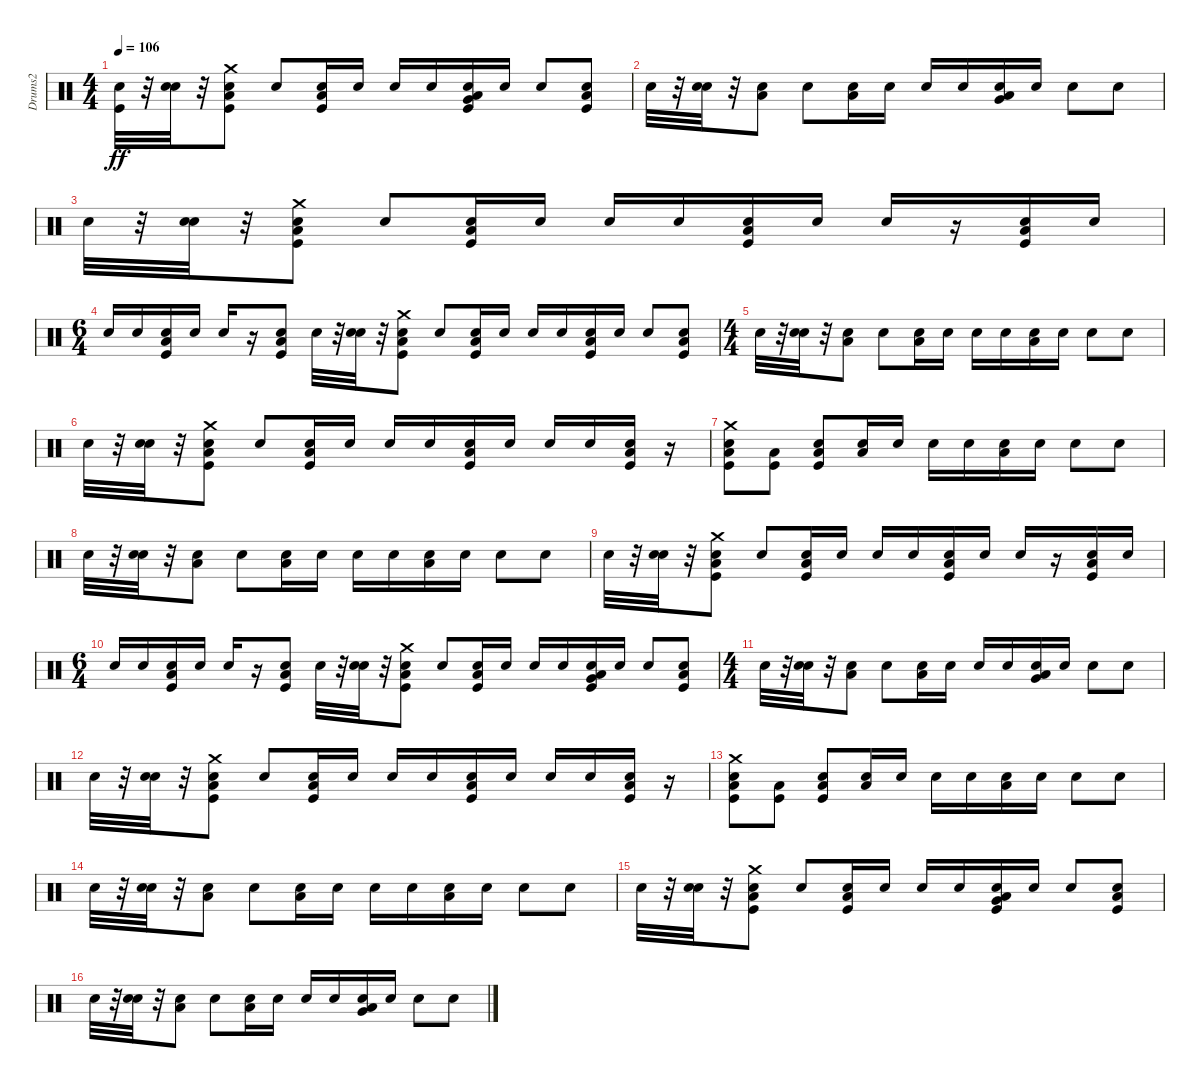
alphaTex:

\track ("Drums2" "Drums2") {instrument percussion}
\staff {score}
\articulation defaults
\ts (4 4)
\tempo 106
\clef neutral
\ks c
("Kick (hit)" "Snare (hit) 2").32{dy ff} r.32 ("Snare (hit) 2" "Snare (hit) 2").32 r.32 ("Kick (hit)" "Snare (hit) 2" "Low Floor Tom (hit)" "Crash medium (hit)").8 "Snare (hit) 2".8 ("Kick (hit)" "Snare (hit) 2" "Low Floor Tom (hit)").16 "Snare (hit) 2".16 "Snare (hit) 2".16 "Snare (hit) 2".16 ("Kick (hit)" "Snare (hit) 2" "Low Floor Tom (hit)" "Very Low Tom (hit)").16 "Snare (hit) 2".16 "Snare (hit) 2".8 ("Kick (hit)" "Snare (hit) 2" "Low Floor Tom (hit)").8 |
"Snare (hit) 2".32 r.32 ("Snare (hit) 2" "Snare (hit) 2").32 r.32 ("Snare (hit) 2" "Low Floor Tom (hit)").8 "Snare (hit) 2".8 ("Snare (hit) 2" "Low Floor Tom (hit)").16 "Snare (hit) 2".16 "Snare (hit) 2".16 "Snare (hit) 2".16 ("Snare (hit) 2" "Low Floor Tom (hit)" "Very Low Tom (hit)").16 "Snare (hit) 2".16 "Snare (hit) 2".8 "Snare (hit) 2".8 |
"Snare (hit) 2".32 r.32 ("Snare (hit) 2" "Snare (hit) 2").32 r.32 ("Kick (hit)" "Snare (hit) 2" "Low Floor Tom (hit)" "Crash medium (hit)").8 "Snare (hit) 2".8 ("Kick (hit)" "Snare (hit) 2" "Low Floor Tom (hit)").16 "Snare (hit) 2".16 "Snare (hit) 2".16 "Snare (hit) 2".16 ("Kick (hit)" "Snare (hit) 2" "Low Floor Tom (hit)").16 "Snare (hit) 2".16 "Snare (hit) 2".16 r.16 ("Kick (hit)" "Snare (hit) 2" "Low Floor Tom (hit)").16 "Snare (hit) 2".16 |
\ts (6 4)
"Snare (hit) 2".16 "Snare (hit) 2".16 ("Kick (hit)" "Snare (hit) 2" "Low Floor Tom (hit)").16 "Snare (hit) 2".16 "Snare (hit) 2".16 r.16 ("Kick (hit)" "Snare (hit) 2" "Low Floor Tom (hit)").8 "Snare (hit) 2".32 r.32 ("Snare (hit) 2" "Snare (hit) 2").32 r.32 ("Kick (hit)" "Snare (hit) 2" "Low Floor Tom (hit)" "Crash medium (hit)").8 "Snare (hit) 2".8 ("Kick (hit)" "Snare (hit) 2" "Low Floor Tom (hit)").16 "Snare (hit) 2".16 "Snare (hit) 2".16 "Snare (hit) 2".16 ("Kick (hit)" "Snare (hit) 2" "Low Floor Tom (hit)").16 "Snare (hit) 2".16 "Snare (hit) 2".8 ("Kick (hit)" "Snare (hit) 2" "Low Floor Tom (hit)").8 |
\ts (4 4)
"Snare (hit) 2".32 r.32 ("Snare (hit) 2" "Snare (hit) 2").32 r.32 ("Snare (hit) 2" "Low Floor Tom (hit)").8 "Snare (hit) 2".8 ("Snare (hit) 2" "Low Floor Tom (hit)").16 "Snare (hit) 2".16 "Snare (hit) 2".16 "Snare (hit) 2".16 ("Snare (hit) 2" "Low Floor Tom (hit)").16 "Snare (hit) 2".16 "Snare (hit) 2".8 "Snare (hit) 2".8 |
"Snare (hit) 2".32 r.32 ("Snare (hit) 2" "Snare (hit) 2").32 r.32 ("Kick (hit)" "Snare (hit) 2" "Low Floor Tom (hit)" "Crash medium (hit)").8 "Snare (hit) 2".8 ("Kick (hit)" "Snare (hit) 2" "Low Floor Tom (hit)").16 "Snare (hit) 2".16 "Snare (hit) 2".16 "Snare (hit) 2".16 ("Kick (hit)" "Snare (hit) 2" "Low Floor Tom (hit)").16 "Snare (hit) 2".16 "Snare (hit) 2".16 "Snare (hit) 2".16 ("Kick (hit)" "Snare (hit) 2" "Low Floor Tom (hit)").16 r.16 |
("Kick (hit)" "Snare (hit) 2" "Low Floor Tom (hit)" "Crash medium (hit)").8 ("Kick (hit)" "Low Floor Tom (hit)").8 ("Kick (hit)" "Snare (hit) 2" "Low Floor Tom (hit)").8 ("Snare (hit) 2" "Low Floor Tom (hit)").16 "Snare (hit) 2".16 "Snare (hit) 2".16 "Snare (hit) 2".16 ("Snare (hit) 2" "Low Floor Tom (hit)").16 "Snare (hit) 2".16 "Snare (hit) 2".8 "Snare (hit) 2".8 |
"Snare (hit) 2".32 r.32 ("Snare (hit) 2" "Snare (hit) 2").32 r.32 ("Snare (hit) 2" "Low Floor Tom (hit)").8 "Snare (hit) 2".8 ("Snare (hit) 2" "Low Floor Tom (hit)").16 "Snare (hit) 2".16 "Snare (hit) 2".16 "Snare (hit) 2".16 ("Snare (hit) 2" "Low Floor Tom (hit)").16 "Snare (hit) 2".16 "Snare (hit) 2".8 "Snare (hit) 2".8 |
"Snare (hit) 2".32 r.32 ("Snare (hit) 2" "Snare (hit) 2").32 r.32 ("Kick (hit)" "Snare (hit) 2" "Low Floor Tom (hit)" "Crash medium (hit)").8 "Snare (hit) 2".8 ("Kick (hit)" "Snare (hit) 2" "Low Floor Tom (hit)").16 "Snare (hit) 2".16 "Snare (hit) 2".16 "Snare (hit) 2".16 ("Kick (hit)" "Snare (hit) 2" "Low Floor Tom (hit)").16 "Snare (hit) 2".16 "Snare (hit) 2".16 r.16 ("Kick (hit)" "Snare (hit) 2" "Low Floor Tom (hit)").16 "Snare (hit) 2".16 |
\ts (6 4)
"Snare (hit) 2".16 "Snare (hit) 2".16 ("Kick (hit)" "Snare (hit) 2" "Low Floor Tom (hit)").16 "Snare (hit) 2".16 "Snare (hit) 2".16 r.16 ("Kick (hit)" "Snare (hit) 2" "Low Floor Tom (hit)").8 "Snare (hit) 2".32 r.32 ("Snare (hit) 2" "Snare (hit) 2").32 r.32 ("Kick (hit)" "Snare (hit) 2" "Low Floor Tom (hit)" "Crash medium (hit)").8 "Snare (hit) 2".8 ("Kick (hit)" "Snare (hit) 2" "Low Floor Tom (hit)").16 "Snare (hit) 2".16 "Snare (hit) 2".16 "Snare (hit) 2".16 ("Kick (hit)" "Snare (hit) 2" "Low Floor Tom (hit)" "Very Low Tom (hit)").16 "Snare (hit) 2".16 "Snare (hit) 2".8 ("Kick (hit)" "Snare (hit) 2" "Low Floor Tom (hit)").8 |
\ts (4 4)
"Snare (hit) 2".32 r.32 ("Snare (hit) 2" "Snare (hit) 2").32 r.32 ("Snare (hit) 2" "Low Floor Tom (hit)").8 "Snare (hit) 2".8 ("Snare (hit) 2" "Low Floor Tom (hit)").16 "Snare (hit) 2".16 "Snare (hit) 2".16 "Snare (hit) 2".16 ("Snare (hit) 2" "Low Floor Tom (hit)" "Very Low Tom (hit)").16 "Snare (hit) 2".16 "Snare (hit) 2".8 "Snare (hit) 2".8 |
"Snare (hit) 2".32 r.32 ("Snare (hit) 2" "Snare (hit) 2").32 r.32 ("Kick (hit)" "Snare (hit) 2" "Low Floor Tom (hit)" "Crash medium (hit)").8 "Snare (hit) 2".8 ("Kick (hit)" "Snare (hit) 2" "Low Floor Tom (hit)").16 "Snare (hit) 2".16 "Snare (hit) 2".16 "Snare (hit) 2".16 ("Kick (hit)" "Snare (hit) 2" "Low Floor Tom (hit)").16 "Snare (hit) 2".16 "Snare (hit) 2".16 "Snare (hit) 2".16 ("Kick (hit)" "Snare (hit) 2" "Low Floor Tom (hit)").16 r.16 |
("Kick (hit)" "Snare (hit) 2" "Low Floor Tom (hit)" "Crash medium (hit)").8 ("Kick (hit)" "Low Floor Tom (hit)").8 ("Kick (hit)" "Snare (hit) 2" "Low Floor Tom (hit)").8 ("Snare (hit) 2" "Low Floor Tom (hit)").16 "Snare (hit) 2".16 "Snare (hit) 2".16 "Snare (hit) 2".16 ("Snare (hit) 2" "Low Floor Tom (hit)").16 "Snare (hit) 2".16 "Snare (hit) 2".8 "Snare (hit) 2".8 |
"Snare (hit) 2".32 r.32 ("Snare (hit) 2" "Snare (hit) 2").32 r.32 ("Snare (hit) 2" "Low Floor Tom (hit)").8 "Snare (hit) 2".8 ("Snare (hit) 2" "Low Floor Tom (hit)").16 "Snare (hit) 2".16 "Snare (hit) 2".16 "Snare (hit) 2".16 ("Snare (hit) 2" "Low Floor Tom (hit)").16 "Snare (hit) 2".16 "Snare (hit) 2".8 "Snare (hit) 2".8 |
"Snare (hit) 2".32 r.32 ("Snare (hit) 2" "Snare (hit) 2").32 r.32 ("Kick (hit)" "Snare (hit) 2" "Low Floor Tom (hit)" "Crash medium (hit)").8 "Snare (hit) 2".8 ("Kick (hit)" "Snare (hit) 2" "Low Floor Tom (hit)").16 "Snare (hit) 2".16 "Snare (hit) 2".16 "Snare (hit) 2".16 ("Kick (hit)" "Snare (hit) 2" "Low Floor Tom (hit)" "Very Low Tom (hit)").16 "Snare (hit) 2".16 "Snare (hit) 2".8 ("Kick (hit)" "Snare (hit) 2" "Low Floor Tom (hit)").8 |
"Snare (hit) 2".32 r.32 ("Snare (hit) 2" "Snare (hit) 2").32 r.32 ("Snare (hit) 2" "Low Floor Tom (hit)").8 "Snare (hit) 2".8 ("Snare (hit) 2" "Low Floor Tom (hit)").16 "Snare (hit) 2".16 "Snare (hit) 2".16 "Snare (hit) 2".16 ("Snare (hit) 2" "Low Floor Tom (hit)" "Very Low Tom (hit)").16 "Snare (hit) 2".16 "Snare (hit) 2".8 "Snare (hit) 2".8
